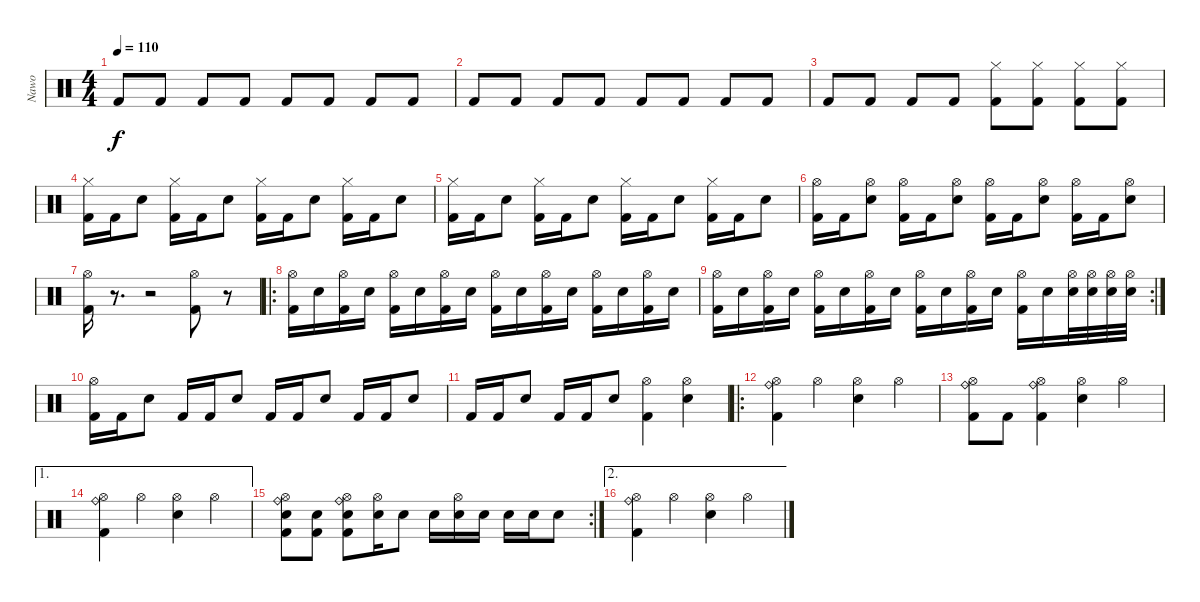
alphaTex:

\track ("Nawo" "Nawo") {instrument percussion}
\staff {score}
\articulation defaults
\ts (4 4)
\tempo 110
\clef neutral
\ks c "Kick (hit) 2".8{dy f} "Kick (hit) 2".8 "Kick (hit) 2".8 "Kick (hit) 2".8 "Kick (hit) 2".8 "Kick (hit) 2".8 "Kick (hit) 2".8 "Kick (hit) 2".8
|
"Kick (hit) 2".8 "Kick (hit) 2".8 "Kick (hit) 2".8 "Kick (hit) 2".8 "Kick (hit) 2".8 "Kick (hit) 2".8 "Kick (hit) 2".8 "Kick (hit) 2".8 |
"Kick (hit) 2".8 "Kick (hit) 2".8 "Kick (hit) 2".8 "Kick (hit) 2".8 ("Hi-Hat (closed)" "Kick (hit) 2").8 ("Hi-Hat (closed)" "Kick (hit) 2").8 ("Hi-Hat (closed)" "Kick (hit) 2").8 ("Hi-Hat (closed)" "Kick (hit) 2").8 |
("Hi-Hat (closed)" "Kick (hit) 2").16 "Kick (hit) 2".16 "Electric Snare (hit)".8 ("Hi-Hat (closed)" "Kick (hit) 2").16 "Kick (hit) 2".16 "Electric Snare (hit)".8 ("Hi-Hat (closed)" "Kick (hit) 2").16 "Kick (hit) 2".16 "Electric Snare (hit)".8 ("Hi-Hat (closed)" "Kick (hit) 2").16 "Kick (hit) 2".16 "Electric Snare (hit)".8 |
("Hi-Hat (closed)" "Kick (hit) 2").16 "Kick (hit) 2".16 "Electric Snare (hit)".8 ("Hi-Hat (closed)" "Kick (hit) 2").16 "Kick (hit) 2".16 "Electric Snare (hit)".8 ("Hi-Hat (closed)" "Kick (hit) 2").16 "Kick (hit) 2".16 "Electric Snare (hit)".8 ("Hi-Hat (closed)" "Kick (hit) 2").16 "Kick (hit) 2".16 "Electric Snare (hit)".8 |
("Hi-Hat (open)" "Kick (hit) 2").16 "Kick (hit) 2".16 ("Hi-Hat (open)" "Electric Snare (hit)").8 ("Hi-Hat (open)" "Kick (hit) 2").16 "Kick (hit) 2".16 ("Hi-Hat (open)" "Electric Snare (hit)").8 ("Hi-Hat (open)" "Kick (hit) 2").16 "Kick (hit) 2".16 ("Hi-Hat (open)" "Electric Snare (hit)").8 ("Hi-Hat (open)" "Kick (hit) 2").16 "Kick (hit) 2".16 ("Hi-Hat (open)" "Electric Snare (hit)").8 |
("Hi-Hat (open)" "Kick (hit) 2").16 r.8{d} r.2 ("Hi-Hat (open)" "Kick (hit) 2").8 r.8 |
\ro
("Hi-Hat (open)" "Kick (hit) 2").16 "Electric Snare (hit)".16 ("Hi-Hat (open)" "Kick (hit) 2").16 "Electric Snare (hit)".16 ("Hi-Hat (open)" "Kick (hit) 2").16 "Electric Snare (hit)".16 ("Hi-Hat (open)" "Kick (hit) 2").16 "Electric Snare (hit)".16 ("Hi-Hat (open)" "Kick (hit) 2").16 "Electric Snare (hit)".16 ("Hi-Hat (open)" "Kick (hit) 2").16 "Electric Snare (hit)".16 ("Hi-Hat (open)" "Kick (hit) 2").16 "Electric Snare (hit)".16 ("Hi-Hat (open)" "Kick (hit) 2").16 "Electric Snare (hit)".16 |
\rc 2
("Hi-Hat (open)" "Kick (hit) 2").16 "Electric Snare (hit)".16 ("Hi-Hat (open)" "Kick (hit) 2").16 "Electric Snare (hit)".16 ("Hi-Hat (open)" "Kick (hit) 2").16 "Electric Snare (hit)".16 ("Hi-Hat (open)" "Kick (hit) 2").16 "Electric Snare (hit)".16 ("Hi-Hat (open)" "Kick (hit) 2").16 "Electric Snare (hit)".16 ("Hi-Hat (open)" "Kick (hit) 2").16 "Electric Snare (hit)".16 ("Hi-Hat (open)" "Kick (hit) 2").16 "Electric Snare (hit)".16 ("Hi-Hat (open)" "Electric Snare (hit)").32 ("Hi-Hat (open)" "Electric Snare (hit)").32 ("Hi-Hat (open)" "Electric Snare (hit)").32 ("Hi-Hat (open)" "Electric Snare (hit)").32 |
("Hi-Hat (open)" "Kick (hit) 2").16 "Kick (hit) 2".16 "Electric Snare (hit)".8 "Kick (hit) 2".16 "Kick (hit) 2".16 "Electric Snare (hit)".8 "Kick (hit) 2".16 "Kick (hit) 2".16 "Electric Snare (hit)".8 "Kick (hit) 2".16 "Kick (hit) 2".16 "Electric Snare (hit)".8 |
"Kick (hit) 2".16 "Kick (hit) 2".16 "Electric Snare (hit)".8 "Kick (hit) 2".16 "Kick (hit) 2".16 "Electric Snare (hit)".8 ("Hi-Hat (open)" "Kick (hit) 2").4 ("Hi-Hat (open)" "Electric Snare (hit)").4 |
\ro
("Ride (bell)" "Hi-Hat (open)" "Kick (hit) 2").4 "Hi-Hat (open)".4 ("Hi-Hat (open)" "Electric Snare (hit)").4 "Hi-Hat (open)".4 |
("Ride (bell)" "Hi-Hat (open)" "Kick (hit) 2").8 "Kick (hit) 2".8 ("Ride (bell)" "Hi-Hat (open)" "Kick (hit) 2").4 ("Hi-Hat (open)" "Electric Snare (hit)").4 "Hi-Hat (open)".4 |
\ae 1
("Ride (bell)" "Hi-Hat (open)" "Kick (hit) 2").4 "Hi-Hat (open)".4 ("Hi-Hat (open)" "Electric Snare (hit)").4 "Hi-Hat (open)".4 |
\rc 2
("Ride (bell)" "Hi-Hat (open)" "Kick (hit) 2" "Electric Snare (hit)").8 ("Kick (hit) 2" "Electric Snare (hit)").8 ("Ride (bell)" "Hi-Hat (open)" "Kick (hit) 2" "Electric Snare (hit)").8 ("Hi-Hat (open)" "Electric Snare (hit)").16 "Electric Snare (hit)".8 "Electric Snare (hit)".16 ("Hi-Hat (open)" "Electric Snare (hit)").16 "Electric Snare (hit)".16 "Electric Snare (hit)".16 "Electric Snare (hit)".16 "Electric Snare (hit)".8 |
\ae 2
("Ride (bell)" "Hi-Hat (open)" "Kick (hit) 2").4 "Hi-Hat (open)".4 ("Hi-Hat (open)" "Electric Snare (hit)").4 "Hi-Hat (open)".4
